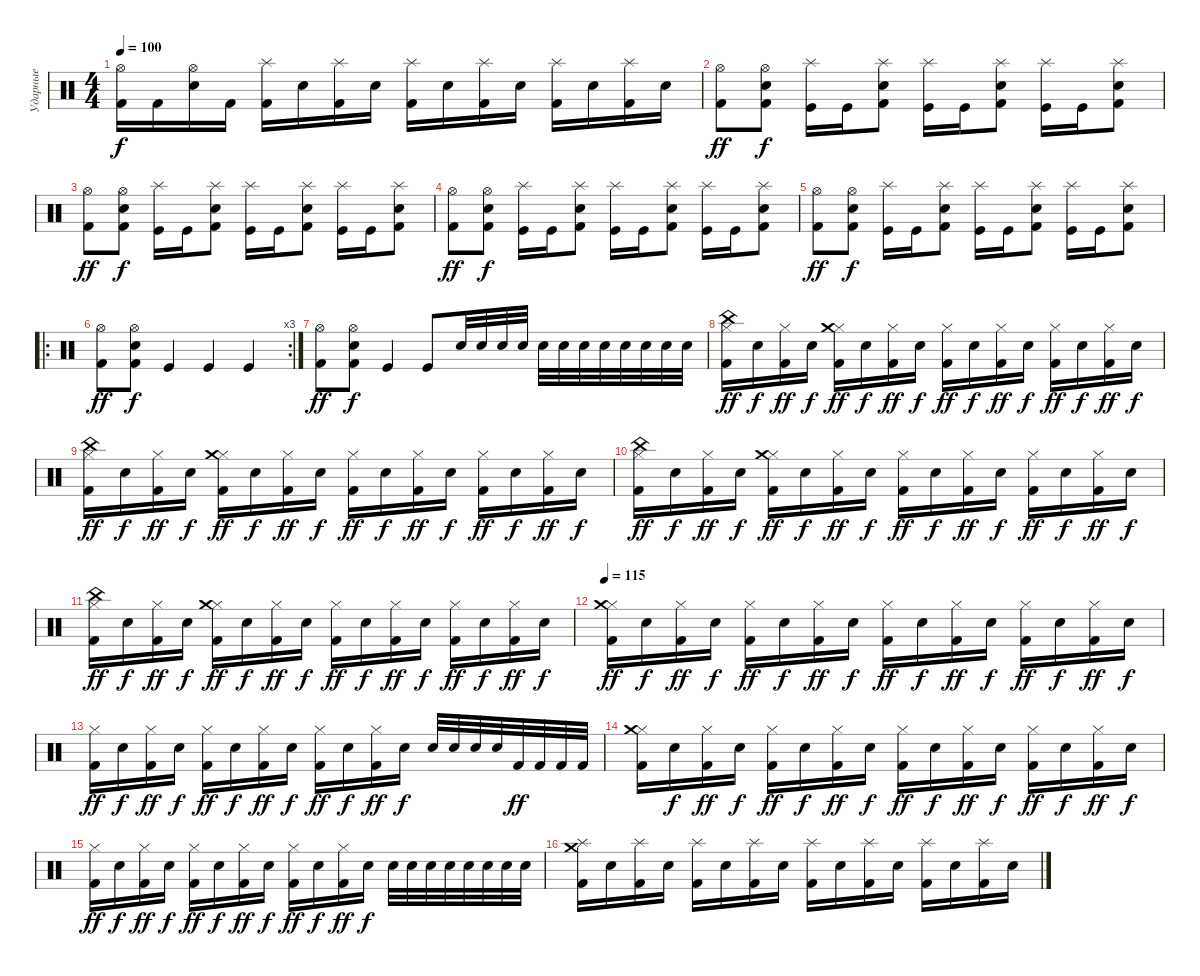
\track ("Ударные" "Ударные") {instrument percussion}
\staff {score}
\articulation defaults
\ts (4 4)
\tempo 100
\clef neutral
\ks c
("Hi-Hat (open)" "Kick (hit) 2").16{dy f} "Kick (hit) 2".16 ("Hi-Hat (open)" "Electric Snare (hit)").16 "Kick (hit) 2".16 ("Splash (hit)" "Kick (hit) 2").16 "Electric Snare (hit)".16 ("Splash (hit)" "Kick (hit) 2").16 "Electric Snare (hit)".16 ("Splash (hit)" "Kick (hit) 2").16 "Electric Snare (hit)".16 ("Splash (hit)" "Kick (hit) 2").16 "Electric Snare (hit)".16 ("Splash (hit)" "Kick (hit) 2").16 "Electric Snare (hit)".16 ("Splash (hit)" "Kick (hit) 2").16 "Electric Snare (hit)".16 |
("Hi-Hat (open)" "Kick (hit) 2").8{dy ff} ("Hi-Hat (open)" "Electric Snare (hit)" "Kick (hit) 2").8{dy f} ("Splash (hit)" "Kick (hit)").16 "Kick (hit)".16 ("Splash (hit)" "Electric Snare (hit)" "Kick (hit) 2").8 ("Splash (hit)" "Kick (hit)").16 "Kick (hit)".16 ("Splash (hit)" "Electric Snare (hit)" "Kick (hit) 2").8 ("Splash (hit)" "Kick (hit)").16 "Kick (hit)".16 ("Splash (hit)" "Electric Snare (hit)" "Kick (hit) 2").8 |
("Hi-Hat (open)" "Kick (hit) 2").8{dy ff} ("Hi-Hat (open)" "Electric Snare (hit)" "Kick (hit) 2").8{dy f} ("Splash (hit)" "Kick (hit)").16 "Kick (hit)".16 ("Splash (hit)" "Electric Snare (hit)" "Kick (hit) 2").8 ("Splash (hit)" "Kick (hit)").16 "Kick (hit)".16 ("Splash (hit)" "Electric Snare (hit)" "Kick (hit) 2").8 ("Splash (hit)" "Kick (hit)").16 "Kick (hit)".16 ("Splash (hit)" "Electric Snare (hit)" "Kick (hit) 2").8 |
("Hi-Hat (open)" "Kick (hit) 2").8{dy ff} ("Hi-Hat (open)" "Electric Snare (hit)" "Kick (hit) 2").8{dy f} ("Splash (hit)" "Kick (hit)").16 "Kick (hit)".16 ("Splash (hit)" "Electric Snare (hit)" "Kick (hit) 2").8 ("Splash (hit)" "Kick (hit)").16 "Kick (hit)".16 ("Splash (hit)" "Electric Snare (hit)" "Kick (hit) 2").8 ("Splash (hit)" "Kick (hit)").16 "Kick (hit)".16 ("Splash (hit)" "Electric Snare (hit)" "Kick (hit) 2").8 |
("Hi-Hat (open)" "Kick (hit) 2").8{dy ff} ("Hi-Hat (open)" "Electric Snare (hit)" "Kick (hit) 2").8{dy f} ("Splash (hit)" "Kick (hit)").16 "Kick (hit)".16 ("Splash (hit)" "Electric Snare (hit)" "Kick (hit) 2").8 ("Splash (hit)" "Kick (hit)").16 "Kick (hit)".16 ("Splash (hit)" "Electric Snare (hit)" "Kick (hit) 2").8 ("Splash (hit)" "Kick (hit)").16 "Kick (hit)".16 ("Splash (hit)" "Electric Snare (hit)" "Kick (hit) 2").8 |
\ro
\rc 3
("Hi-Hat (open)" "Kick (hit) 2").8{dy ff} ("Hi-Hat (open)" "Electric Snare (hit)" "Kick (hit) 2").8{dy f} "Kick (hit)".4 "Kick (hit)".4 "Kick (hit)".4 |
("Hi-Hat (open)" "Kick (hit) 2").8{dy ff} ("Hi-Hat (open)" "Electric Snare (hit)" "Kick (hit) 2").8{dy f} "Kick (hit)".4 "Kick (hit)".8 "Electric Snare (hit)".32 "Electric Snare (hit)".32 "Electric Snare (hit)".32 "Electric Snare (hit)".32 "Snare (hit) 2".32 "Snare (hit) 2".32 "Snare (hit) 2".32 "Snare (hit) 2".32 "Snare (hit) 2".32 "Snare (hit) 2".32 "Snare (hit) 2".32 "Snare (hit) 2".32 |
("Hi-Hat (closed)" "China (hit)" "Kick (hit) 2").16{dy ff} "Electric Snare (hit)".16{dy f} ("Hi-Hat (closed)" "Kick (hit) 2").16{dy ff} "Electric Snare (hit)".16{dy f} ("Hi-Hat (closed)" "Crash medium (hit)" "Kick (hit) 2").16{dy ff} "Electric Snare (hit)".16{dy f} ("Hi-Hat (closed)" "Kick (hit) 2").16{dy ff} "Electric Snare (hit)".16{dy f} ("Hi-Hat (closed)" "Kick (hit) 2").16{dy ff} "Electric Snare (hit)".16{dy f} ("Hi-Hat (closed)" "Kick (hit) 2").16{dy ff} "Electric Snare (hit)".16{dy f} ("Hi-Hat (closed)" "Kick (hit) 2").16{dy ff} "Electric Snare (hit)".16{dy f} ("Hi-Hat (closed)" "Kick (hit) 2").16{dy ff} "Electric Snare (hit)".16{dy f} |
("Hi-Hat (closed)" "China (hit)" "Kick (hit) 2").16{dy ff} "Electric Snare (hit)".16{dy f} ("Hi-Hat (closed)" "Kick (hit) 2").16{dy ff} "Electric Snare (hit)".16{dy f} ("Hi-Hat (closed)" "Crash medium (hit)" "Kick (hit) 2").16{dy ff} "Electric Snare (hit)".16{dy f} ("Hi-Hat (closed)" "Kick (hit) 2").16{dy ff} "Electric Snare (hit)".16{dy f} ("Hi-Hat (closed)" "Kick (hit) 2").16{dy ff} "Electric Snare (hit)".16{dy f} ("Hi-Hat (closed)" "Kick (hit) 2").16{dy ff} "Electric Snare (hit)".16{dy f} ("Hi-Hat (closed)" "Kick (hit) 2").16{dy ff} "Electric Snare (hit)".16{dy f} ("Hi-Hat (closed)" "Kick (hit) 2").16{dy ff} "Electric Snare (hit)".16{dy f} |
("Hi-Hat (closed)" "China (hit)" "Kick (hit) 2").16{dy ff} "Electric Snare (hit)".16{dy f} ("Hi-Hat (closed)" "Kick (hit) 2").16{dy ff} "Electric Snare (hit)".16{dy f} ("Hi-Hat (closed)" "Crash medium (hit)" "Kick (hit) 2").16{dy ff} "Electric Snare (hit)".16{dy f} ("Hi-Hat (closed)" "Kick (hit) 2").16{dy ff} "Electric Snare (hit)".16{dy f} ("Hi-Hat (closed)" "Kick (hit) 2").16{dy ff} "Electric Snare (hit)".16{dy f} ("Hi-Hat (closed)" "Kick (hit) 2").16{dy ff} "Electric Snare (hit)".16{dy f} ("Hi-Hat (closed)" "Kick (hit) 2").16{dy ff} "Electric Snare (hit)".16{dy f} ("Hi-Hat (closed)" "Kick (hit) 2").16{dy ff} "Electric Snare (hit)".16{dy f} |
("Hi-Hat (closed)" "China (hit)" "Kick (hit) 2").16{dy ff} "Electric Snare (hit)".16{dy f} ("Hi-Hat (closed)" "Kick (hit) 2").16{dy ff} "Electric Snare (hit)".16{dy f} ("Hi-Hat (closed)" "Crash medium (hit)" "Kick (hit) 2").16{dy ff} "Electric Snare (hit)".16{dy f} ("Hi-Hat (closed)" "Kick (hit) 2").16{dy ff} "Electric Snare (hit)".16{dy f} ("Hi-Hat (closed)" "Kick (hit) 2").16{dy ff} "Electric Snare (hit)".16{dy f} ("Hi-Hat (closed)" "Kick (hit) 2").16{dy ff} "Electric Snare (hit)".16{dy f} ("Hi-Hat (closed)" "Kick (hit) 2").16{dy ff} "Electric Snare (hit)".16{dy f} ("Hi-Hat (closed)" "Kick (hit) 2").16{dy ff} "Electric Snare (hit)".16{dy f} |
\tempo 115
("Hi-Hat (closed)" "Crash medium (hit)" "Kick (hit) 2").16{dy ff} "Electric Snare (hit)".16{dy f} ("Hi-Hat (closed)" "Kick (hit) 2").16{dy ff} "Electric Snare (hit)".16{dy f} ("Hi-Hat (closed)" "Kick (hit) 2").16{dy ff} "Electric Snare (hit)".16{dy f} ("Hi-Hat (closed)" "Kick (hit) 2").16{dy ff} "Electric Snare (hit)".16{dy f} ("Hi-Hat (closed)" "Kick (hit) 2").16{dy ff} "Electric Snare (hit)".16{dy f} ("Hi-Hat (closed)" "Kick (hit) 2").16{dy ff} "Electric Snare (hit)".16{dy f} ("Hi-Hat (closed)" "Kick (hit) 2").16{dy ff} "Electric Snare (hit)".16{dy f} ("Hi-Hat (closed)" "Kick (hit) 2").16{dy ff} "Electric Snare (hit)".16{dy f} |
("Hi-Hat (closed)" "Kick (hit) 2").16{dy ff} "Electric Snare (hit)".16{dy f} ("Hi-Hat (closed)" "Kick (hit) 2").16{dy ff} "Electric Snare (hit)".16{dy f} ("Hi-Hat (closed)" "Kick (hit) 2").16{dy ff} "Electric Snare (hit)".16{dy f} ("Hi-Hat (closed)" "Kick (hit) 2").16{dy ff} "Electric Snare (hit)".16{dy f} ("Hi-Hat (closed)" "Kick (hit) 2").16{dy ff} "Electric Snare (hit)".16{dy f} ("Hi-Hat (closed)" "Kick (hit) 2").16{dy ff} "Electric Snare (hit)".16{dy f} "Snare (hit) 2".32 "Snare (hit) 2".32 "Snare (hit) 2".32 "Snare (hit) 2".32 "Kick (hit) 2".32{dy ff} "Kick (hit) 2".32 "Kick (hit) 2".32 "Kick (hit) 2".32 |
("Hi-Hat (closed)" "Crash medium (hit)" "Kick (hit) 2").16 "Electric Snare (hit)".16{dy f} ("Hi-Hat (closed)" "Kick (hit) 2").16{dy ff} "Electric Snare (hit)".16{dy f} ("Hi-Hat (closed)" "Kick (hit) 2").16{dy ff} "Electric Snare (hit)".16{dy f} ("Hi-Hat (closed)" "Kick (hit) 2").16{dy ff} "Electric Snare (hit)".16{dy f} ("Hi-Hat (closed)" "Kick (hit) 2").16{dy ff} "Electric Snare (hit)".16{dy f} ("Hi-Hat (closed)" "Kick (hit) 2").16{dy ff} "Electric Snare (hit)".16{dy f} ("Hi-Hat (closed)" "Kick (hit) 2").16{dy ff} "Electric Snare (hit)".16{dy f} ("Hi-Hat (closed)" "Kick (hit) 2").16{dy ff} "Electric Snare (hit)".16{dy f} |
("Hi-Hat (closed)" "Kick (hit) 2").16{dy ff} "Electric Snare (hit)".16{dy f} ("Hi-Hat (closed)" "Kick (hit) 2").16{dy ff} "Electric Snare (hit)".16{dy f} ("Hi-Hat (closed)" "Kick (hit) 2").16{dy ff} "Electric Snare (hit)".16{dy f} ("Hi-Hat (closed)" "Kick (hit) 2").16{dy ff} "Electric Snare (hit)".16{dy f} ("Hi-Hat (closed)" "Kick (hit) 2").16{dy ff} "Electric Snare (hit)".16{dy f} ("Hi-Hat (closed)" "Kick (hit) 2").16{dy ff} "Electric Snare (hit)".16{dy f} "Snare (hit) 2".32 "Snare (hit) 2".32 "Snare (hit) 2".32 "Snare (hit) 2".32 "Electric Snare (hit)".32 "Electric Snare (hit)".32 "Electric Snare (hit)".32 "Electric Snare (hit)".32 |
("Splash (hit)" "Crash medium (hit)" "Kick (hit) 2").16 "Electric Snare (hit)".16 ("Splash (hit)" "Kick (hit) 2").16 "Electric Snare (hit)".16 ("Splash (hit)" "Kick (hit) 2").16 "Electric Snare (hit)".16 ("Splash (hit)" "Kick (hit) 2").16 "Electric Snare (hit)".16 ("Splash (hit)" "Kick (hit) 2").16 "Electric Snare (hit)".16 ("Splash (hit)" "Kick (hit) 2").16 "Electric Snare (hit)".16 ("Splash (hit)" "Kick (hit) 2").16 "Electric Snare (hit)".16 ("Splash (hit)" "Kick (hit) 2").16 "Electric Snare (hit)".16
